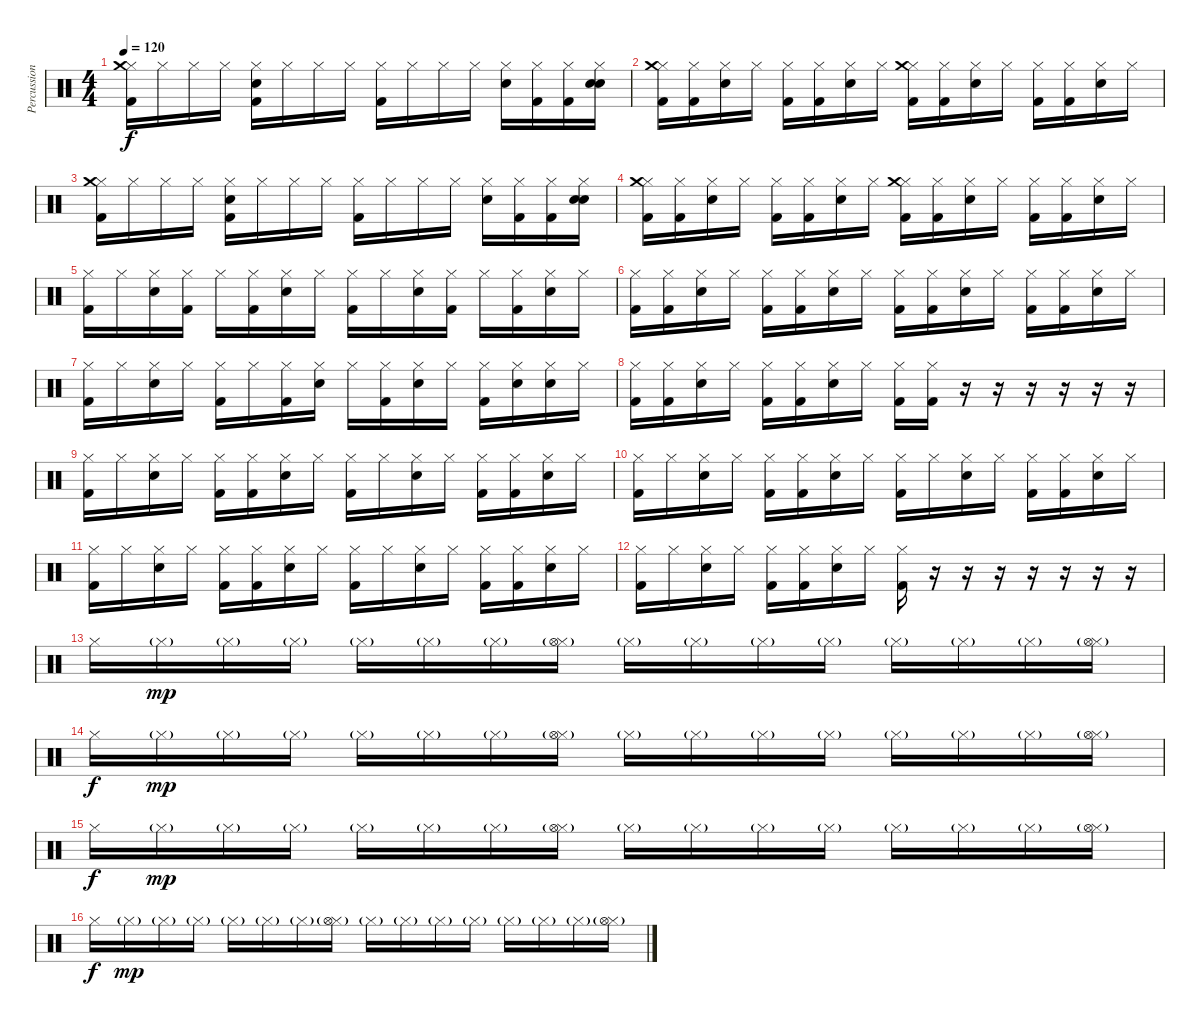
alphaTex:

\track ("Percussions" "Percussion") {instrument percussion}
\staff {score}
\articulation defaults
\ts (4 4)
\tempo 120
\clef neutral
\ks c
("Hi-Hat (closed)" "Crash medium (hit)" "Kick (hit) 2").16{dy f} "Hi-Hat (closed)".16 "Hi-Hat (closed)".16 "Hi-Hat (closed)".16 ("Hi-Hat (closed)" "Electric Snare (hit)" "Kick (hit) 2").16 "Hi-Hat (closed)".16 "Hi-Hat (closed)".16 "Hi-Hat (closed)".16 ("Hi-Hat (closed)" "Kick (hit) 2").16 "Hi-Hat (closed)".16 "Hi-Hat (closed)".16 "Hi-Hat (closed)".16 ("Hi-Hat (closed)" "Electric Snare (hit)").16 ("Hi-Hat (closed)" "Kick (hit) 2").16 ("Hi-Hat (closed)" "Kick (hit) 2").16 ("Hi-Hat (closed)" "Electric Snare (hit)" "Snare (hit) 2").16 |
("Hi-Hat (closed)" "Crash medium (hit)" "Kick (hit) 2").16 ("Hi-Hat (closed)" "Kick (hit) 2").16 ("Hi-Hat (closed)" "Electric Snare (hit)").16 "Hi-Hat (closed)".16 ("Hi-Hat (closed)" "Kick (hit) 2").16 ("Hi-Hat (closed)" "Kick (hit) 2").16 ("Hi-Hat (closed)" "Electric Snare (hit)").16 "Hi-Hat (closed)".16 ("Hi-Hat (closed)" "Crash medium (hit)" "Kick (hit) 2").16 ("Hi-Hat (closed)" "Kick (hit) 2").16 ("Hi-Hat (closed)" "Electric Snare (hit)").16 "Hi-Hat (closed)".16 ("Hi-Hat (closed)" "Kick (hit) 2").16 ("Hi-Hat (closed)" "Kick (hit) 2").16 ("Hi-Hat (closed)" "Electric Snare (hit)").16 "Hi-Hat (closed)".16 |
("Hi-Hat (closed)" "Crash medium (hit)" "Kick (hit) 2").16 "Hi-Hat (closed)".16 "Hi-Hat (closed)".16 "Hi-Hat (closed)".16 ("Hi-Hat (closed)" "Electric Snare (hit)" "Kick (hit) 2").16 "Hi-Hat (closed)".16 "Hi-Hat (closed)".16 "Hi-Hat (closed)".16 ("Hi-Hat (closed)" "Kick (hit) 2").16 "Hi-Hat (closed)".16 "Hi-Hat (closed)".16 "Hi-Hat (closed)".16 ("Hi-Hat (closed)" "Electric Snare (hit)").16 ("Hi-Hat (closed)" "Kick (hit) 2").16 ("Hi-Hat (closed)" "Kick (hit) 2").16 ("Hi-Hat (closed)" "Electric Snare (hit)" "Snare (hit) 2").16 |
("Hi-Hat (closed)" "Crash medium (hit)" "Kick (hit) 2").16 ("Hi-Hat (closed)" "Kick (hit) 2").16 ("Hi-Hat (closed)" "Electric Snare (hit)").16 "Hi-Hat (closed)".16 ("Hi-Hat (closed)" "Kick (hit) 2").16 ("Hi-Hat (closed)" "Kick (hit) 2").16 ("Hi-Hat (closed)" "Electric Snare (hit)").16 "Hi-Hat (closed)".16 ("Hi-Hat (closed)" "Crash medium (hit)" "Kick (hit) 2").16 ("Hi-Hat (closed)" "Kick (hit) 2").16 ("Hi-Hat (closed)" "Electric Snare (hit)").16 "Hi-Hat (closed)".16 ("Hi-Hat (closed)" "Kick (hit) 2").16 ("Hi-Hat (closed)" "Kick (hit) 2").16 ("Hi-Hat (closed)" "Electric Snare (hit)").16 "Hi-Hat (closed)".16 |
("Hi-Hat (closed)" "Kick (hit) 2").16 "Hi-Hat (closed)".16 ("Hi-Hat (closed)" "Electric Snare (hit)").16 ("Hi-Hat (closed)" "Kick (hit) 2").16 "Hi-Hat (closed)".16 ("Hi-Hat (closed)" "Kick (hit) 2").16 ("Hi-Hat (closed)" "Electric Snare (hit)").16 "Hi-Hat (closed)".16 ("Hi-Hat (closed)" "Kick (hit) 2").16 "Hi-Hat (closed)".16 ("Hi-Hat (closed)" "Electric Snare (hit)").16 ("Hi-Hat (closed)" "Kick (hit) 2").16 "Hi-Hat (closed)".16 ("Hi-Hat (closed)" "Kick (hit) 2").16 ("Hi-Hat (closed)" "Electric Snare (hit)").16 "Hi-Hat (closed)".16 |
("Hi-Hat (closed)" "Kick (hit) 2").16 ("Hi-Hat (closed)" "Kick (hit) 2").16 ("Hi-Hat (closed)" "Electric Snare (hit)").16 "Hi-Hat (closed)".16 ("Hi-Hat (closed)" "Kick (hit) 2").16 ("Hi-Hat (closed)" "Kick (hit) 2").16 ("Hi-Hat (closed)" "Electric Snare (hit)").16 "Hi-Hat (closed)".16 ("Hi-Hat (closed)" "Kick (hit) 2").16 ("Hi-Hat (closed)" "Kick (hit) 2").16 ("Hi-Hat (closed)" "Electric Snare (hit)").16 "Hi-Hat (closed)".16 ("Hi-Hat (closed)" "Kick (hit) 2").16 ("Hi-Hat (closed)" "Kick (hit) 2").16 ("Hi-Hat (closed)" "Electric Snare (hit)").16 "Hi-Hat (closed)".16 |
("Hi-Hat (closed)" "Kick (hit) 2").16 "Hi-Hat (closed)".16 ("Hi-Hat (closed)" "Electric Snare (hit)").16 "Hi-Hat (closed)".16 ("Hi-Hat (closed)" "Kick (hit) 2").16 "Hi-Hat (closed)".16 ("Hi-Hat (closed)" "Kick (hit) 2").16 ("Hi-Hat (closed)" "Electric Snare (hit)").16 "Hi-Hat (closed)".16 ("Hi-Hat (closed)" "Kick (hit) 2").16 ("Hi-Hat (closed)" "Electric Snare (hit)").16 "Hi-Hat (closed)".16 ("Hi-Hat (closed)" "Kick (hit) 2").16 ("Hi-Hat (closed)" "Electric Snare (hit)").16 ("Hi-Hat (closed)" "Snare (hit) 2").16 "Hi-Hat (closed)".16 |
("Hi-Hat (closed)" "Kick (hit) 2").16 ("Hi-Hat (closed)" "Kick (hit) 2").16 ("Hi-Hat (closed)" "Electric Snare (hit)").16 "Hi-Hat (closed)".16 ("Hi-Hat (closed)" "Kick (hit) 2").16 ("Hi-Hat (closed)" "Kick (hit) 2").16 ("Hi-Hat (closed)" "Electric Snare (hit)").16 "Hi-Hat (closed)".16 ("Hi-Hat (closed)" "Kick (hit) 2").16 ("Hi-Hat (closed)" "Kick (hit) 2").16 r.16 r.16 r.16 r.16 r.16 r.16 |
("Hi-Hat (closed)" "Kick (hit) 2").16 "Hi-Hat (closed)".16 ("Hi-Hat (closed)" "Electric Snare (hit)").16 "Hi-Hat (closed)".16 ("Hi-Hat (closed)" "Kick (hit) 2").16 ("Hi-Hat (closed)" "Kick (hit) 2").16 ("Hi-Hat (closed)" "Electric Snare (hit)").16 "Hi-Hat (closed)".16 ("Hi-Hat (closed)" "Kick (hit) 2").16 "Hi-Hat (closed)".16 ("Hi-Hat (closed)" "Electric Snare (hit)").16 "Hi-Hat (closed)".16 ("Hi-Hat (closed)" "Kick (hit) 2").16 ("Hi-Hat (closed)" "Kick (hit) 2").16 ("Hi-Hat (closed)" "Electric Snare (hit)").16 "Hi-Hat (closed)".16 |
("Hi-Hat (closed)" "Kick (hit) 2").16 "Hi-Hat (closed)".16 ("Hi-Hat (closed)" "Electric Snare (hit)").16 "Hi-Hat (closed)".16 ("Hi-Hat (closed)" "Kick (hit) 2").16 ("Hi-Hat (closed)" "Kick (hit) 2").16 ("Hi-Hat (closed)" "Electric Snare (hit)").16 "Hi-Hat (closed)".16 ("Hi-Hat (closed)" "Kick (hit) 2").16 "Hi-Hat (closed)".16 ("Hi-Hat (closed)" "Electric Snare (hit)").16 "Hi-Hat (closed)".16 ("Hi-Hat (closed)" "Kick (hit) 2").16 ("Hi-Hat (closed)" "Kick (hit) 2").16 ("Hi-Hat (closed)" "Electric Snare (hit)").16 "Hi-Hat (closed)".16 |
("Hi-Hat (closed)" "Kick (hit) 2").16 "Hi-Hat (closed)".16 ("Hi-Hat (closed)" "Electric Snare (hit)").16 "Hi-Hat (closed)".16 ("Hi-Hat (closed)" "Kick (hit) 2").16 ("Hi-Hat (closed)" "Kick (hit) 2").16 ("Hi-Hat (closed)" "Electric Snare (hit)").16 "Hi-Hat (closed)".16 ("Hi-Hat (closed)" "Kick (hit) 2").16 "Hi-Hat (closed)".16 ("Hi-Hat (closed)" "Electric Snare (hit)").16 "Hi-Hat (closed)".16 ("Hi-Hat (closed)" "Kick (hit) 2").16 ("Hi-Hat (closed)" "Kick (hit) 2").16 ("Hi-Hat (closed)" "Electric Snare (hit)").16 "Hi-Hat (closed)".16 |
("Hi-Hat (closed)" "Kick (hit) 2").16 "Hi-Hat (closed)".16 ("Hi-Hat (closed)" "Electric Snare (hit)").16 "Hi-Hat (closed)".16 ("Hi-Hat (closed)" "Kick (hit) 2").16 ("Hi-Hat (closed)" "Kick (hit) 2").16 ("Hi-Hat (closed)" "Electric Snare (hit)").16 "Hi-Hat (closed)".16 ("Hi-Hat (closed)" "Kick (hit) 2").16 r.16 r.16 r.16 r.16 r.16 r.16 r.16 |
"Hi-Hat (closed)".16 "Hi-Hat (closed)"{g}.16{dy mp} "Hi-Hat (closed)"{g}.16 "Hi-Hat (closed)"{g}.16 "Hi-Hat (closed)"{g}.16 "Hi-Hat (closed)"{g}.16 "Hi-Hat (closed)"{g}.16 ("Hi-Hat (closed)"{g} "Hi-Hat (open)").16 "Hi-Hat (closed)"{g}.16 "Hi-Hat (closed)"{g}.16 "Hi-Hat (closed)"{g}.16 "Hi-Hat (closed)"{g}.16 "Hi-Hat (closed)"{g}.16 "Hi-Hat (closed)"{g}.16 "Hi-Hat (closed)"{g}.16 ("Hi-Hat (closed)"{g} "Hi-Hat (open)").16 |
"Hi-Hat (closed)".16{dy f} "Hi-Hat (closed)"{g}.16{dy mp} "Hi-Hat (closed)"{g}.16 "Hi-Hat (closed)"{g}.16 "Hi-Hat (closed)"{g}.16 "Hi-Hat (closed)"{g}.16 "Hi-Hat (closed)"{g}.16 ("Hi-Hat (closed)"{g} "Hi-Hat (open)").16 "Hi-Hat (closed)"{g}.16 "Hi-Hat (closed)"{g}.16 "Hi-Hat (closed)"{g}.16 "Hi-Hat (closed)"{g}.16 "Hi-Hat (closed)"{g}.16 "Hi-Hat (closed)"{g}.16 "Hi-Hat (closed)"{g}.16 ("Hi-Hat (closed)"{g} "Hi-Hat (open)").16 |
"Hi-Hat (closed)".16{dy f} "Hi-Hat (closed)"{g}.16{dy mp} "Hi-Hat (closed)"{g}.16 "Hi-Hat (closed)"{g}.16 "Hi-Hat (closed)"{g}.16 "Hi-Hat (closed)"{g}.16 "Hi-Hat (closed)"{g}.16 ("Hi-Hat (closed)"{g} "Hi-Hat (open)").16 "Hi-Hat (closed)"{g}.16 "Hi-Hat (closed)"{g}.16 "Hi-Hat (closed)"{g}.16 "Hi-Hat (closed)"{g}.16 "Hi-Hat (closed)"{g}.16 "Hi-Hat (closed)"{g}.16 "Hi-Hat (closed)"{g}.16 ("Hi-Hat (closed)"{g} "Hi-Hat (open)").16 |
"Hi-Hat (closed)".16{dy f} "Hi-Hat (closed)"{g}.16{dy mp} "Hi-Hat (closed)"{g}.16 "Hi-Hat (closed)"{g}.16 "Hi-Hat (closed)"{g}.16 "Hi-Hat (closed)"{g}.16 "Hi-Hat (closed)"{g}.16 ("Hi-Hat (closed)"{g} "Hi-Hat (open)").16 "Hi-Hat (closed)"{g}.16 "Hi-Hat (closed)"{g}.16 "Hi-Hat (closed)"{g}.16 "Hi-Hat (closed)"{g}.16 "Hi-Hat (closed)"{g}.16 "Hi-Hat (closed)"{g}.16 "Hi-Hat (closed)"{g}.16 ("Hi-Hat (closed)"{g} "Hi-Hat (open)").16
